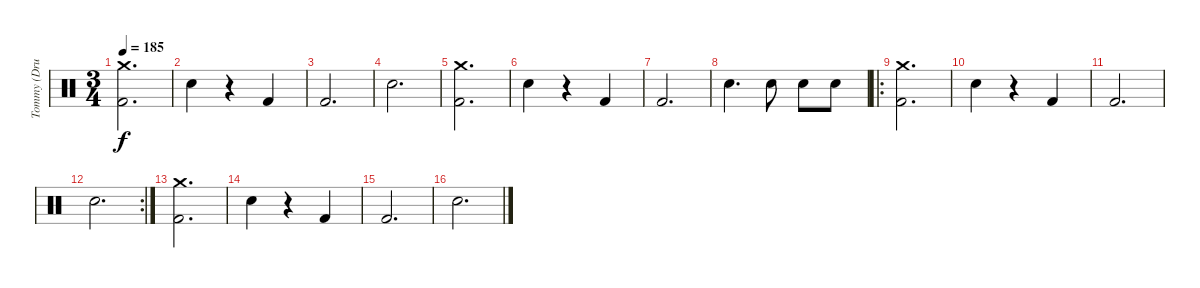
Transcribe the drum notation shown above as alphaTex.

\track ("Tommy (Drums)" "Tommy (Dru") {instrument percussion}
\staff {score}
\articulation defaults
\ts (3 4)
\tempo 185
\clef neutral
\ks c
("Crash medium (hit)" "Kick (hit) 2").2{d dy f} |
"Electric Snare (hit)".4 r.4 "Kick (hit) 2".4 |
"Kick (hit) 2".2{d} |
"Electric Snare (hit)".2{d} |
("Crash medium (hit)" "Kick (hit) 2").2{d} |
"Electric Snare (hit)".4 r.4 "Kick (hit) 2".4 |
"Kick (hit) 2".2{d} |
"Electric Snare (hit)".4{d} "Electric Snare (hit)".8 "Electric Snare (hit)".8 "Electric Snare (hit)".8 |
\ro
("Crash medium (hit)" "Kick (hit) 2").2{d} |
"Electric Snare (hit)".4 r.4 "Kick (hit) 2".4 |
"Kick (hit) 2".2{d} |
\rc 2 "Electric Snare (hit)".2{d}
|
("Crash medium (hit)" "Kick (hit) 2").2{d} |
"Electric Snare (hit)".4 r.4 "Kick (hit) 2".4 |
"Kick (hit) 2".2{d} |
"Electric Snare (hit)".2{d}
